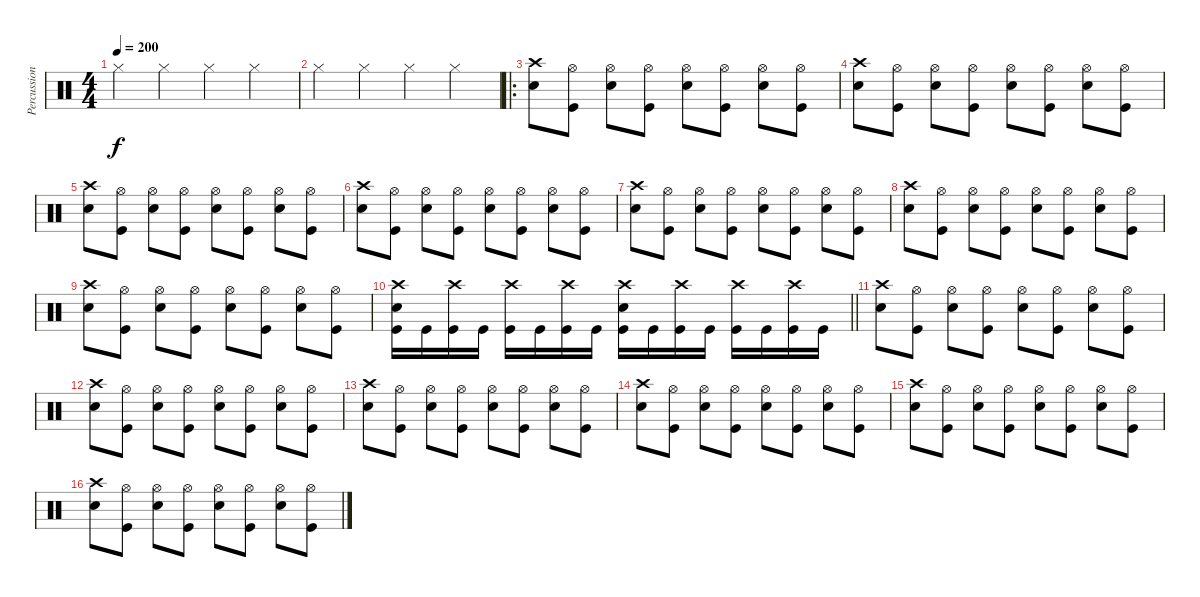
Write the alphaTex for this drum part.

\track ("Percussion" "Percussion") {instrument percussion}
\staff {score}
\articulation defaults
\ts (4 4)
\tempo 200
\clef neutral
\ks c "Hi-Hat (closed)".4{dy f} "Hi-Hat (closed)".4 "Hi-Hat (closed)".4 "Hi-Hat (closed)".4
|
"Hi-Hat (closed)".4 "Hi-Hat (closed)".4 "Hi-Hat (closed)".4 "Hi-Hat (closed)".4 |
\ro
("Crash high (hit)" "Electric Snare (hit)").8 ("Hi-Hat (open)" "Kick (hit)").8 ("Hi-Hat (open)" "Electric Snare (hit)").8 ("Hi-Hat (open)" "Kick (hit)").8 ("Hi-Hat (open)" "Electric Snare (hit)").8 ("Hi-Hat (open)" "Kick (hit)").8 ("Hi-Hat (open)" "Electric Snare (hit)").8 ("Hi-Hat (open)" "Kick (hit)").8 |
("Crash high (hit)" "Electric Snare (hit)").8 ("Hi-Hat (open)" "Kick (hit)").8 ("Hi-Hat (open)" "Electric Snare (hit)").8 ("Hi-Hat (open)" "Kick (hit)").8 ("Hi-Hat (open)" "Electric Snare (hit)").8 ("Hi-Hat (open)" "Kick (hit)").8 ("Hi-Hat (open)" "Electric Snare (hit)").8 ("Hi-Hat (open)" "Kick (hit)").8 |
("Crash high (hit)" "Electric Snare (hit)").8 ("Hi-Hat (open)" "Kick (hit)").8 ("Hi-Hat (open)" "Electric Snare (hit)").8 ("Hi-Hat (open)" "Kick (hit)").8 ("Hi-Hat (open)" "Electric Snare (hit)").8 ("Hi-Hat (open)" "Kick (hit)").8 ("Hi-Hat (open)" "Electric Snare (hit)").8 ("Hi-Hat (open)" "Kick (hit)").8 |
("Crash high (hit)" "Electric Snare (hit)").8 ("Hi-Hat (open)" "Kick (hit)").8 ("Hi-Hat (open)" "Electric Snare (hit)").8 ("Hi-Hat (open)" "Kick (hit)").8 ("Hi-Hat (open)" "Electric Snare (hit)").8 ("Hi-Hat (open)" "Kick (hit)").8 ("Hi-Hat (open)" "Electric Snare (hit)").8 ("Hi-Hat (open)" "Kick (hit)").8 |
("Crash high (hit)" "Electric Snare (hit)").8 ("Hi-Hat (open)" "Kick (hit)").8 ("Hi-Hat (open)" "Electric Snare (hit)").8 ("Hi-Hat (open)" "Kick (hit)").8 ("Hi-Hat (open)" "Electric Snare (hit)").8 ("Hi-Hat (open)" "Kick (hit)").8 ("Hi-Hat (open)" "Electric Snare (hit)").8 ("Hi-Hat (open)" "Kick (hit)").8 |
("Crash high (hit)" "Electric Snare (hit)").8 ("Hi-Hat (open)" "Kick (hit)").8 ("Hi-Hat (open)" "Electric Snare (hit)").8 ("Hi-Hat (open)" "Kick (hit)").8 ("Hi-Hat (open)" "Electric Snare (hit)").8 ("Hi-Hat (open)" "Kick (hit)").8 ("Hi-Hat (open)" "Electric Snare (hit)").8 ("Hi-Hat (open)" "Kick (hit)").8 |
("Crash high (hit)" "Electric Snare (hit)").8 ("Hi-Hat (open)" "Kick (hit)").8 ("Hi-Hat (open)" "Electric Snare (hit)").8 ("Hi-Hat (open)" "Kick (hit)").8 ("Hi-Hat (open)" "Electric Snare (hit)").8 ("Hi-Hat (open)" "Kick (hit)").8 ("Hi-Hat (open)" "Electric Snare (hit)").8 ("Hi-Hat (open)" "Kick (hit)").8 |
\barLineRight lightlight
("Crash high (hit)" "Kick (hit)" "Electric Snare (hit)").16 "Kick (hit)".16 ("Crash high (hit)" "Kick (hit)").16 "Kick (hit)".16 ("Crash high (hit)" "Kick (hit)").16 "Kick (hit)".16 ("Crash high (hit)" "Kick (hit)").16 "Kick (hit)".16 ("Crash high (hit)" "Kick (hit)" "Electric Snare (hit)").16 "Kick (hit)".16 ("Crash high (hit)" "Kick (hit)").16 "Kick (hit)".16 ("Crash high (hit)" "Kick (hit)").16 "Kick (hit)".16 ("Crash high (hit)" "Kick (hit)").16 "Kick (hit)".16 |
("Crash high (hit)" "Electric Snare (hit)").8 ("Hi-Hat (open)" "Kick (hit)").8 ("Hi-Hat (open)" "Electric Snare (hit)").8 ("Hi-Hat (open)" "Kick (hit)").8 ("Hi-Hat (open)" "Electric Snare (hit)").8 ("Hi-Hat (open)" "Kick (hit)").8 ("Hi-Hat (open)" "Electric Snare (hit)").8 ("Hi-Hat (open)" "Kick (hit)").8 |
("Crash high (hit)" "Electric Snare (hit)").8 ("Hi-Hat (open)" "Kick (hit)").8 ("Hi-Hat (open)" "Electric Snare (hit)").8 ("Hi-Hat (open)" "Kick (hit)").8 ("Hi-Hat (open)" "Electric Snare (hit)").8 ("Hi-Hat (open)" "Kick (hit)").8 ("Hi-Hat (open)" "Electric Snare (hit)").8 ("Hi-Hat (open)" "Kick (hit)").8 |
("Crash high (hit)" "Electric Snare (hit)").8 ("Hi-Hat (open)" "Kick (hit)").8 ("Hi-Hat (open)" "Electric Snare (hit)").8 ("Hi-Hat (open)" "Kick (hit)").8 ("Hi-Hat (open)" "Electric Snare (hit)").8 ("Hi-Hat (open)" "Kick (hit)").8 ("Hi-Hat (open)" "Electric Snare (hit)").8 ("Hi-Hat (open)" "Kick (hit)").8 |
("Crash high (hit)" "Electric Snare (hit)").8 ("Hi-Hat (open)" "Kick (hit)").8 ("Hi-Hat (open)" "Electric Snare (hit)").8 ("Hi-Hat (open)" "Kick (hit)").8 ("Hi-Hat (open)" "Electric Snare (hit)").8 ("Hi-Hat (open)" "Kick (hit)").8 ("Hi-Hat (open)" "Electric Snare (hit)").8 ("Hi-Hat (open)" "Kick (hit)").8 |
("Crash high (hit)" "Electric Snare (hit)").8 ("Hi-Hat (open)" "Kick (hit)").8 ("Hi-Hat (open)" "Electric Snare (hit)").8 ("Hi-Hat (open)" "Kick (hit)").8 ("Hi-Hat (open)" "Electric Snare (hit)").8 ("Hi-Hat (open)" "Kick (hit)").8 ("Hi-Hat (open)" "Electric Snare (hit)").8 ("Hi-Hat (open)" "Kick (hit)").8 |
("Crash high (hit)" "Electric Snare (hit)").8 ("Hi-Hat (open)" "Kick (hit)").8 ("Hi-Hat (open)" "Electric Snare (hit)").8 ("Hi-Hat (open)" "Kick (hit)").8 ("Hi-Hat (open)" "Electric Snare (hit)").8 ("Hi-Hat (open)" "Kick (hit)").8 ("Hi-Hat (open)" "Electric Snare (hit)").8 ("Hi-Hat (open)" "Kick (hit)").8
